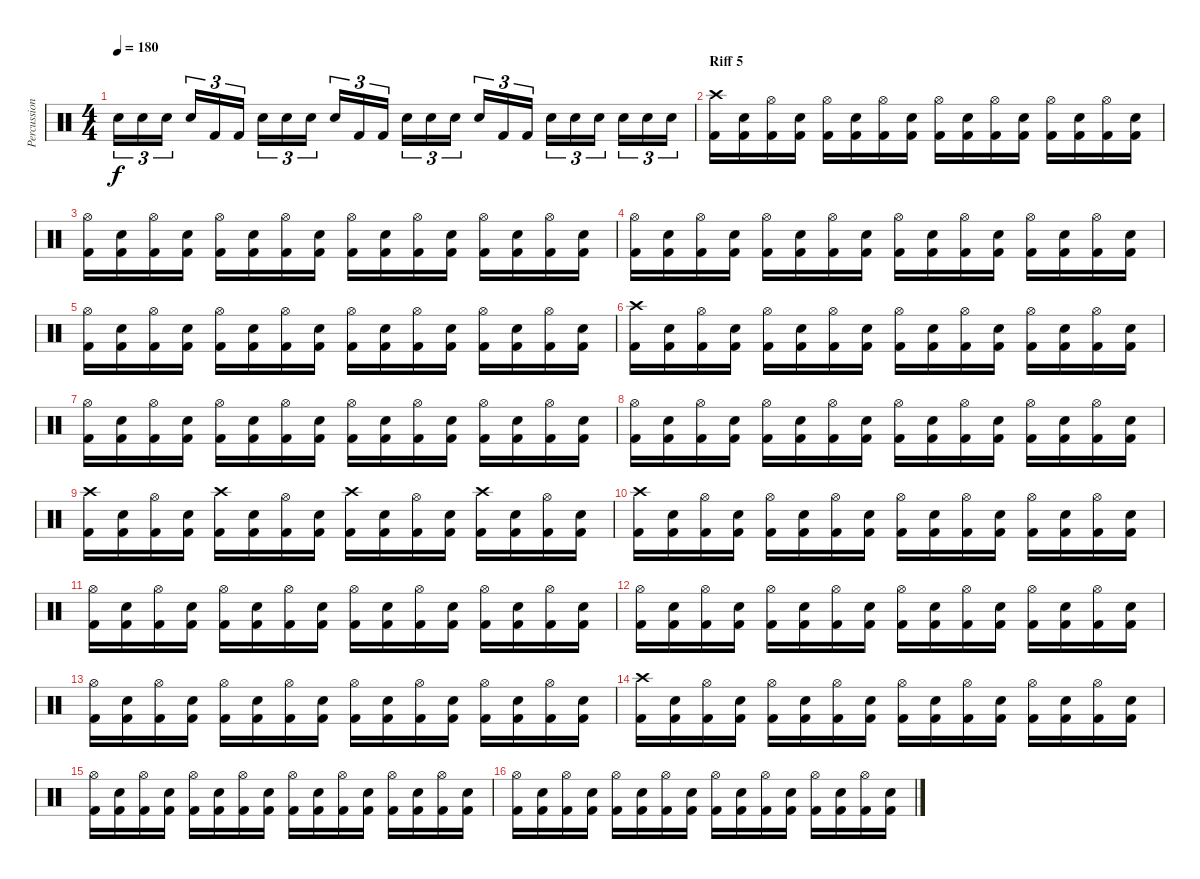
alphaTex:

\track ("Percussion" "Percussion") {instrument percussion}
\staff {score}
\articulation defaults
\ts (4 4)
\tempo 180
\clef neutral
\ks c "Electric Snare (hit)".16{tu (3 2) dy f} "Electric Snare (hit)".16{tu (3 2)} "Electric Snare (hit)".16{tu (3 2)} "Electric Snare (hit)".16{tu (3 2)} "Kick (hit) 2".16{tu (3 2)} "Kick (hit) 2".16{tu (3 2)} "Electric Snare (hit)".16{tu (3 2)} "Electric Snare (hit)".16{tu (3 2)} "Electric Snare (hit)".16{tu (3 2)} "Electric Snare (hit)".16{tu (3 2)} "Kick (hit) 2".16{tu (3 2)} "Kick (hit) 2".16{tu (3 2)} "Electric Snare (hit)".16{tu (3 2)} "Electric Snare (hit)".16{tu (3 2)} "Electric Snare (hit)".16{tu (3 2)} "Electric Snare (hit)".16{tu (3 2)} "Kick (hit) 2".16{tu (3 2)} "Kick (hit) 2".16{tu (3 2)} "Electric Snare (hit)".16{tu (3 2)} "Electric Snare (hit)".16{tu (3 2)} "Electric Snare (hit)".16{tu (3 2)} "Electric Snare (hit)".16{tu (3 2)} "Electric Snare (hit)".16{tu (3 2)} "Electric Snare (hit)".16{tu (3 2)}
|
\section ("" "Riff 5")
("Crash high (hit)" "Kick (hit) 2").16 ("Electric Snare (hit)" "Kick (hit) 2").16 ("Hi-Hat (open)" "Kick (hit) 2").16 ("Electric Snare (hit)" "Kick (hit) 2").16 ("Hi-Hat (open)" "Kick (hit) 2").16 ("Electric Snare (hit)" "Kick (hit) 2").16 ("Hi-Hat (open)" "Kick (hit) 2").16 ("Electric Snare (hit)" "Kick (hit) 2").16 ("Hi-Hat (open)" "Kick (hit) 2").16 ("Electric Snare (hit)" "Kick (hit) 2").16 ("Hi-Hat (open)" "Kick (hit) 2").16 ("Electric Snare (hit)" "Kick (hit) 2").16 ("Hi-Hat (open)" "Kick (hit) 2").16 ("Electric Snare (hit)" "Kick (hit) 2").16 ("Hi-Hat (open)" "Kick (hit) 2").16 ("Electric Snare (hit)" "Kick (hit) 2").16 |
("Hi-Hat (open)" "Kick (hit) 2").16 ("Electric Snare (hit)" "Kick (hit) 2").16 ("Hi-Hat (open)" "Kick (hit) 2").16 ("Electric Snare (hit)" "Kick (hit) 2").16 ("Hi-Hat (open)" "Kick (hit) 2").16 ("Electric Snare (hit)" "Kick (hit) 2").16 ("Hi-Hat (open)" "Kick (hit) 2").16 ("Electric Snare (hit)" "Kick (hit) 2").16 ("Hi-Hat (open)" "Kick (hit) 2").16 ("Electric Snare (hit)" "Kick (hit) 2").16 ("Hi-Hat (open)" "Kick (hit) 2").16 ("Electric Snare (hit)" "Kick (hit) 2").16 ("Hi-Hat (open)" "Kick (hit) 2").16 ("Electric Snare (hit)" "Kick (hit) 2").16 ("Hi-Hat (open)" "Kick (hit) 2").16 ("Electric Snare (hit)" "Kick (hit) 2").16 |
("Hi-Hat (open)" "Kick (hit) 2").16 ("Electric Snare (hit)" "Kick (hit) 2").16 ("Hi-Hat (open)" "Kick (hit) 2").16 ("Electric Snare (hit)" "Kick (hit) 2").16 ("Hi-Hat (open)" "Kick (hit) 2").16 ("Electric Snare (hit)" "Kick (hit) 2").16 ("Hi-Hat (open)" "Kick (hit) 2").16 ("Electric Snare (hit)" "Kick (hit) 2").16 ("Hi-Hat (open)" "Kick (hit) 2").16 ("Electric Snare (hit)" "Kick (hit) 2").16 ("Hi-Hat (open)" "Kick (hit) 2").16 ("Electric Snare (hit)" "Kick (hit) 2").16 ("Hi-Hat (open)" "Kick (hit) 2").16 ("Electric Snare (hit)" "Kick (hit) 2").16 ("Hi-Hat (open)" "Kick (hit) 2").16 ("Electric Snare (hit)" "Kick (hit) 2").16 |
("Hi-Hat (open)" "Kick (hit) 2").16 ("Electric Snare (hit)" "Kick (hit) 2").16 ("Hi-Hat (open)" "Kick (hit) 2").16 ("Electric Snare (hit)" "Kick (hit) 2").16 ("Hi-Hat (open)" "Kick (hit) 2").16 ("Electric Snare (hit)" "Kick (hit) 2").16 ("Hi-Hat (open)" "Kick (hit) 2").16 ("Electric Snare (hit)" "Kick (hit) 2").16 ("Hi-Hat (open)" "Kick (hit) 2").16 ("Electric Snare (hit)" "Kick (hit) 2").16 ("Hi-Hat (open)" "Kick (hit) 2").16 ("Electric Snare (hit)" "Kick (hit) 2").16 ("Hi-Hat (open)" "Kick (hit) 2").16 ("Electric Snare (hit)" "Kick (hit) 2").16 ("Hi-Hat (open)" "Kick (hit) 2").16 ("Electric Snare (hit)" "Kick (hit) 2").16 |
("Crash high (hit)" "Kick (hit) 2").16 ("Electric Snare (hit)" "Kick (hit) 2").16 ("Hi-Hat (open)" "Kick (hit) 2").16 ("Electric Snare (hit)" "Kick (hit) 2").16 ("Hi-Hat (open)" "Kick (hit) 2").16 ("Electric Snare (hit)" "Kick (hit) 2").16 ("Hi-Hat (open)" "Kick (hit) 2").16 ("Electric Snare (hit)" "Kick (hit) 2").16 ("Hi-Hat (open)" "Kick (hit) 2").16 ("Electric Snare (hit)" "Kick (hit) 2").16 ("Hi-Hat (open)" "Kick (hit) 2").16 ("Electric Snare (hit)" "Kick (hit) 2").16 ("Hi-Hat (open)" "Kick (hit) 2").16 ("Electric Snare (hit)" "Kick (hit) 2").16 ("Hi-Hat (open)" "Kick (hit) 2").16 ("Electric Snare (hit)" "Kick (hit) 2").16 |
("Hi-Hat (open)" "Kick (hit) 2").16 ("Electric Snare (hit)" "Kick (hit) 2").16 ("Hi-Hat (open)" "Kick (hit) 2").16 ("Electric Snare (hit)" "Kick (hit) 2").16 ("Hi-Hat (open)" "Kick (hit) 2").16 ("Electric Snare (hit)" "Kick (hit) 2").16 ("Hi-Hat (open)" "Kick (hit) 2").16 ("Electric Snare (hit)" "Kick (hit) 2").16 ("Hi-Hat (open)" "Kick (hit) 2").16 ("Electric Snare (hit)" "Kick (hit) 2").16 ("Hi-Hat (open)" "Kick (hit) 2").16 ("Electric Snare (hit)" "Kick (hit) 2").16 ("Hi-Hat (open)" "Kick (hit) 2").16 ("Electric Snare (hit)" "Kick (hit) 2").16 ("Hi-Hat (open)" "Kick (hit) 2").16 ("Electric Snare (hit)" "Kick (hit) 2").16 |
("Hi-Hat (open)" "Kick (hit) 2").16 ("Electric Snare (hit)" "Kick (hit) 2").16 ("Hi-Hat (open)" "Kick (hit) 2").16 ("Electric Snare (hit)" "Kick (hit) 2").16 ("Hi-Hat (open)" "Kick (hit) 2").16 ("Electric Snare (hit)" "Kick (hit) 2").16 ("Hi-Hat (open)" "Kick (hit) 2").16 ("Electric Snare (hit)" "Kick (hit) 2").16 ("Hi-Hat (open)" "Kick (hit) 2").16 ("Electric Snare (hit)" "Kick (hit) 2").16 ("Hi-Hat (open)" "Kick (hit) 2").16 ("Electric Snare (hit)" "Kick (hit) 2").16 ("Hi-Hat (open)" "Kick (hit) 2").16 ("Electric Snare (hit)" "Kick (hit) 2").16 ("Hi-Hat (open)" "Kick (hit) 2").16 ("Electric Snare (hit)" "Kick (hit) 2").16 |
("Crash high (hit)" "Kick (hit) 2").16 ("Electric Snare (hit)" "Kick (hit) 2").16 ("Hi-Hat (open)" "Kick (hit) 2").16 ("Electric Snare (hit)" "Kick (hit) 2").16 ("Crash high (hit)" "Kick (hit) 2").16 ("Electric Snare (hit)" "Kick (hit) 2").16 ("Hi-Hat (open)" "Kick (hit) 2").16 ("Electric Snare (hit)" "Kick (hit) 2").16 ("Crash high (hit)" "Kick (hit) 2").16 ("Electric Snare (hit)" "Kick (hit) 2").16 ("Hi-Hat (open)" "Kick (hit) 2").16 ("Electric Snare (hit)" "Kick (hit) 2").16 ("Crash high (hit)" "Kick (hit) 2").16 ("Electric Snare (hit)" "Kick (hit) 2").16 ("Hi-Hat (open)" "Kick (hit) 2").16 ("Electric Snare (hit)" "Kick (hit) 2").16 |
("Crash high (hit)" "Kick (hit) 2").16 ("Electric Snare (hit)" "Kick (hit) 2").16 ("Hi-Hat (open)" "Kick (hit) 2").16 ("Electric Snare (hit)" "Kick (hit) 2").16 ("Hi-Hat (open)" "Kick (hit) 2").16 ("Electric Snare (hit)" "Kick (hit) 2").16 ("Hi-Hat (open)" "Kick (hit) 2").16 ("Electric Snare (hit)" "Kick (hit) 2").16 ("Hi-Hat (open)" "Kick (hit) 2").16 ("Electric Snare (hit)" "Kick (hit) 2").16 ("Hi-Hat (open)" "Kick (hit) 2").16 ("Electric Snare (hit)" "Kick (hit) 2").16 ("Hi-Hat (open)" "Kick (hit) 2").16 ("Electric Snare (hit)" "Kick (hit) 2").16 ("Hi-Hat (open)" "Kick (hit) 2").16 ("Electric Snare (hit)" "Kick (hit) 2").16 |
("Hi-Hat (open)" "Kick (hit) 2").16 ("Electric Snare (hit)" "Kick (hit) 2").16 ("Hi-Hat (open)" "Kick (hit) 2").16 ("Electric Snare (hit)" "Kick (hit) 2").16 ("Hi-Hat (open)" "Kick (hit) 2").16 ("Electric Snare (hit)" "Kick (hit) 2").16 ("Hi-Hat (open)" "Kick (hit) 2").16 ("Electric Snare (hit)" "Kick (hit) 2").16 ("Hi-Hat (open)" "Kick (hit) 2").16 ("Electric Snare (hit)" "Kick (hit) 2").16 ("Hi-Hat (open)" "Kick (hit) 2").16 ("Electric Snare (hit)" "Kick (hit) 2").16 ("Hi-Hat (open)" "Kick (hit) 2").16 ("Electric Snare (hit)" "Kick (hit) 2").16 ("Hi-Hat (open)" "Kick (hit) 2").16 ("Electric Snare (hit)" "Kick (hit) 2").16 |
("Hi-Hat (open)" "Kick (hit) 2").16 ("Electric Snare (hit)" "Kick (hit) 2").16 ("Hi-Hat (open)" "Kick (hit) 2").16 ("Electric Snare (hit)" "Kick (hit) 2").16 ("Hi-Hat (open)" "Kick (hit) 2").16 ("Electric Snare (hit)" "Kick (hit) 2").16 ("Hi-Hat (open)" "Kick (hit) 2").16 ("Electric Snare (hit)" "Kick (hit) 2").16 ("Hi-Hat (open)" "Kick (hit) 2").16 ("Electric Snare (hit)" "Kick (hit) 2").16 ("Hi-Hat (open)" "Kick (hit) 2").16 ("Electric Snare (hit)" "Kick (hit) 2").16 ("Hi-Hat (open)" "Kick (hit) 2").16 ("Electric Snare (hit)" "Kick (hit) 2").16 ("Hi-Hat (open)" "Kick (hit) 2").16 ("Electric Snare (hit)" "Kick (hit) 2").16 |
("Hi-Hat (open)" "Kick (hit) 2").16 ("Electric Snare (hit)" "Kick (hit) 2").16 ("Hi-Hat (open)" "Kick (hit) 2").16 ("Electric Snare (hit)" "Kick (hit) 2").16 ("Hi-Hat (open)" "Kick (hit) 2").16 ("Electric Snare (hit)" "Kick (hit) 2").16 ("Hi-Hat (open)" "Kick (hit) 2").16 ("Electric Snare (hit)" "Kick (hit) 2").16 ("Hi-Hat (open)" "Kick (hit) 2").16 ("Electric Snare (hit)" "Kick (hit) 2").16 ("Hi-Hat (open)" "Kick (hit) 2").16 ("Electric Snare (hit)" "Kick (hit) 2").16 ("Hi-Hat (open)" "Kick (hit) 2").16 ("Electric Snare (hit)" "Kick (hit) 2").16 ("Hi-Hat (open)" "Kick (hit) 2").16 ("Electric Snare (hit)" "Kick (hit) 2").16 |
("Crash high (hit)" "Kick (hit) 2").16 ("Electric Snare (hit)" "Kick (hit) 2").16 ("Hi-Hat (open)" "Kick (hit) 2").16 ("Electric Snare (hit)" "Kick (hit) 2").16 ("Hi-Hat (open)" "Kick (hit) 2").16 ("Electric Snare (hit)" "Kick (hit) 2").16 ("Hi-Hat (open)" "Kick (hit) 2").16 ("Electric Snare (hit)" "Kick (hit) 2").16 ("Hi-Hat (open)" "Kick (hit) 2").16 ("Electric Snare (hit)" "Kick (hit) 2").16 ("Hi-Hat (open)" "Kick (hit) 2").16 ("Electric Snare (hit)" "Kick (hit) 2").16 ("Hi-Hat (open)" "Kick (hit) 2").16 ("Electric Snare (hit)" "Kick (hit) 2").16 ("Hi-Hat (open)" "Kick (hit) 2").16 ("Electric Snare (hit)" "Kick (hit) 2").16 |
("Hi-Hat (open)" "Kick (hit) 2").16 ("Electric Snare (hit)" "Kick (hit) 2").16 ("Hi-Hat (open)" "Kick (hit) 2").16 ("Electric Snare (hit)" "Kick (hit) 2").16 ("Hi-Hat (open)" "Kick (hit) 2").16 ("Electric Snare (hit)" "Kick (hit) 2").16 ("Hi-Hat (open)" "Kick (hit) 2").16 ("Electric Snare (hit)" "Kick (hit) 2").16 ("Hi-Hat (open)" "Kick (hit) 2").16 ("Electric Snare (hit)" "Kick (hit) 2").16 ("Hi-Hat (open)" "Kick (hit) 2").16 ("Electric Snare (hit)" "Kick (hit) 2").16 ("Hi-Hat (open)" "Kick (hit) 2").16 ("Electric Snare (hit)" "Kick (hit) 2").16 ("Hi-Hat (open)" "Kick (hit) 2").16 ("Electric Snare (hit)" "Kick (hit) 2").16 |
("Hi-Hat (open)" "Kick (hit) 2").16 ("Electric Snare (hit)" "Kick (hit) 2").16 ("Hi-Hat (open)" "Kick (hit) 2").16 ("Electric Snare (hit)" "Kick (hit) 2").16 ("Hi-Hat (open)" "Kick (hit) 2").16 ("Electric Snare (hit)" "Kick (hit) 2").16 ("Hi-Hat (open)" "Kick (hit) 2").16 ("Electric Snare (hit)" "Kick (hit) 2").16 ("Hi-Hat (open)" "Kick (hit) 2").16 ("Electric Snare (hit)" "Kick (hit) 2").16 ("Hi-Hat (open)" "Kick (hit) 2").16 ("Electric Snare (hit)" "Kick (hit) 2").16 ("Hi-Hat (open)" "Kick (hit) 2").16 ("Electric Snare (hit)" "Kick (hit) 2").16 ("Hi-Hat (open)" "Kick (hit) 2").16 ("Electric Snare (hit)" "Kick (hit) 2").16
